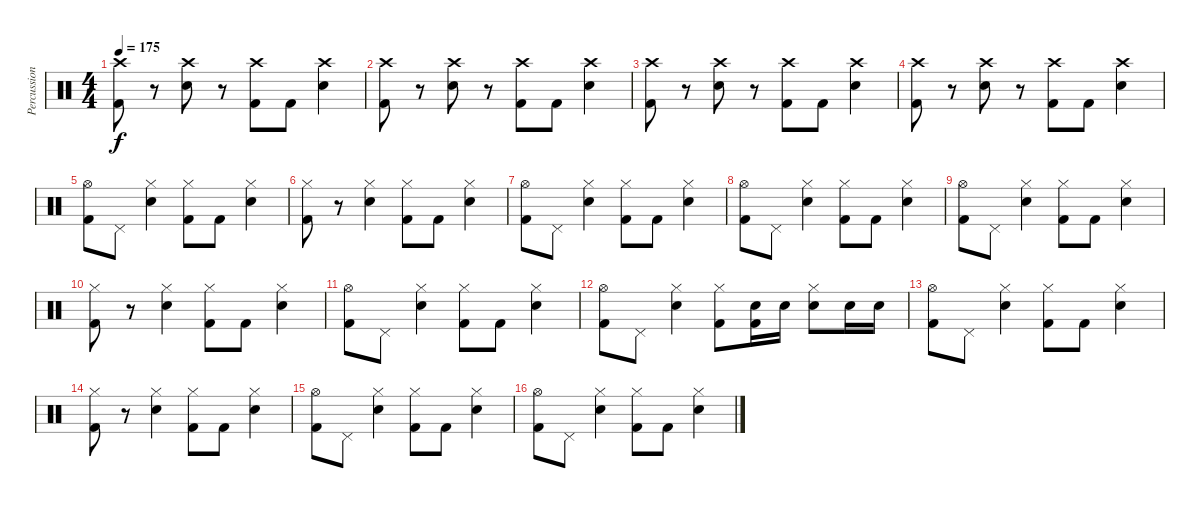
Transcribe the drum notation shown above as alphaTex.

\track ("Percussion" "Percussion") {instrument percussion}
\staff {score}
\articulation defaults
\ts (4 4)
\tempo 175
\clef neutral
\ks c
("Kick (hit) 2" "Crash high (hit)").8{dy f} r.8 ("Electric Snare (hit)" "Crash high (hit)").8 r.8 ("Kick (hit) 2" "Crash high (hit)").8 "Kick (hit) 2".8 ("Electric Snare (hit)" "Crash high (hit)").4 |
("Kick (hit) 2" "Crash high (hit)").8 r.8 ("Electric Snare (hit)" "Crash high (hit)").8 r.8 ("Kick (hit) 2" "Crash high (hit)").8 "Kick (hit) 2".8 ("Electric Snare (hit)" "Crash high (hit)").4 |
("Kick (hit) 2" "Crash high (hit)").8 r.8 ("Electric Snare (hit)" "Crash high (hit)").8 r.8 ("Kick (hit) 2" "Crash high (hit)").8 "Kick (hit) 2".8 ("Electric Snare (hit)" "Crash high (hit)").4 |
("Kick (hit) 2" "Crash high (hit)").8 r.8 ("Electric Snare (hit)" "Crash high (hit)").8 r.8 ("Kick (hit) 2" "Crash high (hit)").8 "Kick (hit) 2".8 ("Electric Snare (hit)" "Crash high (hit)").4 |
("Kick (hit) 2" "Hi-Hat (open)").8 "Pedal Hi-Hat (hit)".8 ("Electric Snare (hit)" "Hi-Hat (closed)").4 ("Kick (hit) 2" "Hi-Hat (closed)").8 "Kick (hit) 2".8 ("Electric Snare (hit)" "Hi-Hat (closed)").4 |
("Kick (hit) 2" "Hi-Hat (closed)").8 r.8 ("Electric Snare (hit)" "Hi-Hat (closed)").4 ("Kick (hit) 2" "Hi-Hat (closed)").8 "Kick (hit) 2".8 ("Electric Snare (hit)" "Hi-Hat (closed)").4 |
("Kick (hit) 2" "Hi-Hat (open)").8 "Pedal Hi-Hat (hit)".8 ("Electric Snare (hit)" "Hi-Hat (closed)").4 ("Kick (hit) 2" "Hi-Hat (closed)").8 "Kick (hit) 2".8 ("Electric Snare (hit)" "Hi-Hat (closed)").4 |
("Kick (hit) 2" "Hi-Hat (open)").8 "Pedal Hi-Hat (hit)".8 ("Electric Snare (hit)" "Hi-Hat (closed)").4 ("Kick (hit) 2" "Hi-Hat (closed)").8 "Kick (hit) 2".8 ("Electric Snare (hit)" "Hi-Hat (closed)").4 |
("Kick (hit) 2" "Hi-Hat (open)").8 "Pedal Hi-Hat (hit)".8 ("Electric Snare (hit)" "Hi-Hat (closed)").4 ("Kick (hit) 2" "Hi-Hat (closed)").8 "Kick (hit) 2".8 ("Electric Snare (hit)" "Hi-Hat (closed)").4 |
("Kick (hit) 2" "Hi-Hat (closed)").8 r.8 ("Electric Snare (hit)" "Hi-Hat (closed)").4 ("Kick (hit) 2" "Hi-Hat (closed)").8 "Kick (hit) 2".8 ("Electric Snare (hit)" "Hi-Hat (closed)").4 |
("Kick (hit) 2" "Hi-Hat (open)").8 "Pedal Hi-Hat (hit)".8 ("Electric Snare (hit)" "Hi-Hat (closed)").4 ("Kick (hit) 2" "Hi-Hat (closed)").8 "Kick (hit) 2".8 ("Electric Snare (hit)" "Hi-Hat (closed)").4 |
("Kick (hit) 2" "Hi-Hat (open)").8 "Pedal Hi-Hat (hit)".8 ("Electric Snare (hit)" "Hi-Hat (closed)").4 ("Kick (hit) 2" "Hi-Hat (closed)").8 ("Kick (hit) 2" "Electric Snare (hit)").16 "Electric Snare (hit)".16 ("Electric Snare (hit)" "Hi-Hat (closed)").8 "Electric Snare (hit)".16 "Electric Snare (hit)".16 |
("Kick (hit) 2" "Hi-Hat (open)").8 "Pedal Hi-Hat (hit)".8 ("Electric Snare (hit)" "Hi-Hat (closed)").4 ("Kick (hit) 2" "Hi-Hat (closed)").8 "Kick (hit) 2".8 ("Electric Snare (hit)" "Hi-Hat (closed)").4 |
("Kick (hit) 2" "Hi-Hat (closed)").8 r.8 ("Electric Snare (hit)" "Hi-Hat (closed)").4 ("Kick (hit) 2" "Hi-Hat (closed)").8 "Kick (hit) 2".8 ("Electric Snare (hit)" "Hi-Hat (closed)").4 |
("Kick (hit) 2" "Hi-Hat (open)").8 "Pedal Hi-Hat (hit)".8 ("Electric Snare (hit)" "Hi-Hat (closed)").4 ("Kick (hit) 2" "Hi-Hat (closed)").8 "Kick (hit) 2".8 ("Electric Snare (hit)" "Hi-Hat (closed)").4 |
("Kick (hit) 2" "Hi-Hat (open)").8 "Pedal Hi-Hat (hit)".8 ("Electric Snare (hit)" "Hi-Hat (closed)").4 ("Kick (hit) 2" "Hi-Hat (closed)").8 "Kick (hit) 2".8 ("Electric Snare (hit)" "Hi-Hat (closed)").4
